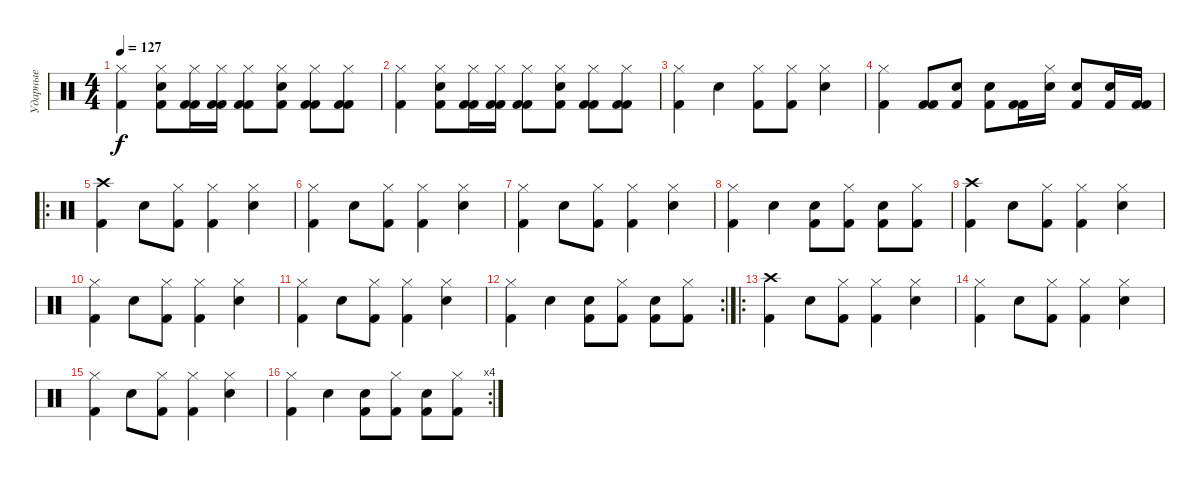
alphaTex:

\track ("Ударные" "Ударные") {instrument percussion}
\staff {score}
\articulation defaults
\ts (4 4)
\tempo 127
\clef neutral
\ks c
("Hi-Hat (closed)" "Kick (hit) 2").4{dy f} ("Hi-Hat (closed)" "Kick (hit) 2" "Electric Snare (hit)").8 ("Hi-Hat (closed)" "Kick (hit) 2" "Kick (hit) 2").16 ("Hi-Hat (closed)" "Kick (hit) 2" "Kick (hit) 2").16 ("Hi-Hat (closed)" "Kick (hit) 2" "Kick (hit) 2").8 ("Hi-Hat (closed)" "Kick (hit) 2" "Electric Snare (hit)").8 ("Hi-Hat (closed)" "Kick (hit) 2" "Kick (hit) 2").8 ("Hi-Hat (closed)" "Kick (hit) 2" "Kick (hit) 2").8 |
("Hi-Hat (closed)" "Kick (hit) 2").4 ("Hi-Hat (closed)" "Kick (hit) 2" "Electric Snare (hit)").8 ("Hi-Hat (closed)" "Kick (hit) 2" "Kick (hit) 2").16 ("Hi-Hat (closed)" "Kick (hit) 2" "Kick (hit) 2").16 ("Hi-Hat (closed)" "Kick (hit) 2" "Kick (hit) 2").8 ("Hi-Hat (closed)" "Kick (hit) 2" "Electric Snare (hit)").8 ("Hi-Hat (closed)" "Kick (hit) 2" "Kick (hit) 2").8 ("Hi-Hat (closed)" "Kick (hit) 2" "Kick (hit) 2").8 |
("Hi-Hat (closed)" "Kick (hit) 2").4 "Electric Snare (hit)".4 ("Hi-Hat (closed)" "Kick (hit) 2").8 ("Hi-Hat (closed)" "Kick (hit) 2").8 ("Hi-Hat (closed)" "Electric Snare (hit)").4 |
("Hi-Hat (closed)" "Kick (hit) 2").4 ("Kick (hit) 2" "Kick (hit) 2").8 ("Kick (hit) 2" "Electric Snare (hit)").8 ("Kick (hit) 2" "Electric Snare (hit)").8 ("Kick (hit) 2" "Kick (hit) 2").16 ("Hi-Hat (closed)" "Electric Snare (hit)").16 ("Kick (hit) 2" "Electric Snare (hit)").8 ("Kick (hit) 2" "Electric Snare (hit)").16 ("Kick (hit) 2" "Kick (hit) 2").16 |
\ro
("Crash high (hit)" "Kick (hit) 2").4 "Electric Snare (hit)".8 ("Hi-Hat (closed)" "Kick (hit) 2").8 ("Hi-Hat (closed)" "Kick (hit) 2").4 ("Hi-Hat (closed)" "Electric Snare (hit)").4 |
("Hi-Hat (closed)" "Kick (hit) 2").4 "Electric Snare (hit)".8 ("Hi-Hat (closed)" "Kick (hit) 2").8 ("Hi-Hat (closed)" "Kick (hit) 2").4 ("Hi-Hat (closed)" "Electric Snare (hit)").4 |
("Hi-Hat (closed)" "Kick (hit) 2").4 "Electric Snare (hit)".8 ("Hi-Hat (closed)" "Kick (hit) 2").8 ("Hi-Hat (closed)" "Kick (hit) 2").4 ("Hi-Hat (closed)" "Electric Snare (hit)").4 |
("Hi-Hat (closed)" "Kick (hit) 2").4 "Electric Snare (hit)".4 ("Kick (hit) 2" "Electric Snare (hit)").8 ("Hi-Hat (closed)" "Kick (hit) 2").8 ("Kick (hit) 2" "Electric Snare (hit)").8 ("Hi-Hat (closed)" "Kick (hit) 2").8 |
("Crash high (hit)" "Kick (hit) 2").4 "Electric Snare (hit)".8 ("Hi-Hat (closed)" "Kick (hit) 2").8 ("Hi-Hat (closed)" "Kick (hit) 2").4 ("Hi-Hat (closed)" "Electric Snare (hit)").4 |
("Hi-Hat (closed)" "Kick (hit) 2").4 "Electric Snare (hit)".8 ("Hi-Hat (closed)" "Kick (hit) 2").8 ("Hi-Hat (closed)" "Kick (hit) 2").4 ("Hi-Hat (closed)" "Electric Snare (hit)").4 |
("Hi-Hat (closed)" "Kick (hit) 2").4 "Electric Snare (hit)".8 ("Hi-Hat (closed)" "Kick (hit) 2").8 ("Hi-Hat (closed)" "Kick (hit) 2").4 ("Hi-Hat (closed)" "Electric Snare (hit)").4 |
\rc 2
("Hi-Hat (closed)" "Kick (hit) 2").4 "Electric Snare (hit)".4 ("Kick (hit) 2" "Electric Snare (hit)").8 ("Hi-Hat (closed)" "Kick (hit) 2").8 ("Kick (hit) 2" "Electric Snare (hit)").8 ("Hi-Hat (closed)" "Kick (hit) 2").8 |
\ro
("Crash high (hit)" "Kick (hit) 2").4 "Electric Snare (hit)".8 ("Hi-Hat (closed)" "Kick (hit) 2").8 ("Hi-Hat (closed)" "Kick (hit) 2").4 ("Hi-Hat (closed)" "Electric Snare (hit)").4 |
("Hi-Hat (closed)" "Kick (hit) 2").4 "Electric Snare (hit)".8 ("Hi-Hat (closed)" "Kick (hit) 2").8 ("Hi-Hat (closed)" "Kick (hit) 2").4 ("Hi-Hat (closed)" "Electric Snare (hit)").4 |
("Hi-Hat (closed)" "Kick (hit) 2").4 "Electric Snare (hit)".8 ("Hi-Hat (closed)" "Kick (hit) 2").8 ("Hi-Hat (closed)" "Kick (hit) 2").4 ("Hi-Hat (closed)" "Electric Snare (hit)").4 |
\rc 4
("Hi-Hat (closed)" "Kick (hit) 2").4 "Electric Snare (hit)".4 ("Kick (hit) 2" "Electric Snare (hit)").8 ("Hi-Hat (closed)" "Kick (hit) 2").8 ("Kick (hit) 2" "Electric Snare (hit)").8 ("Hi-Hat (closed)" "Kick (hit) 2").8
